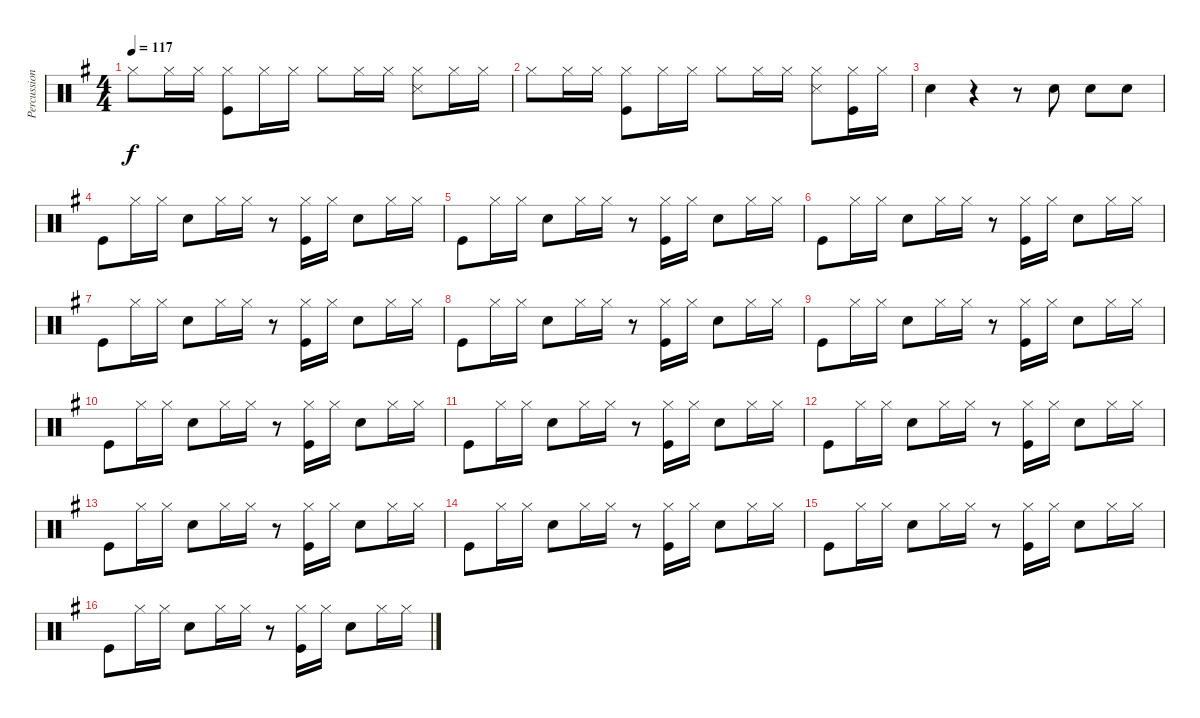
\track ("Percussion" "Percussion") {instrument percussion}
\staff {score}
\articulation defaults
\ts (4 4)
\tempo 117
\clef neutral
\ks g "Hi-Hat (closed)".8{dy f} "Hi-Hat (closed)".16 "Hi-Hat (closed)".16
("Hi-Hat (closed)" "Kick (hit)").8 "Hi-Hat (closed)".16 "Hi-Hat (closed)".16 "Hi-Hat (closed)".8 "Hi-Hat (closed)".16 "Hi-Hat (closed)".16 ("Hi-Hat (closed)" "Snare (side stick) 3").8 "Hi-Hat (closed)".16 "Hi-Hat (closed)".16 |
"Hi-Hat (closed)".8 "Hi-Hat (closed)".16 "Hi-Hat (closed)".16 ("Hi-Hat (closed)" "Kick (hit)").8 "Hi-Hat (closed)".16 "Hi-Hat (closed)".16 "Hi-Hat (closed)".8 "Hi-Hat (closed)".16 "Hi-Hat (closed)".16 ("Hi-Hat (closed)" "Snare (side stick) 3").8 ("Hi-Hat (closed)" "Kick (hit)").16 "Hi-Hat (closed)".16 |
"Snare (hit) 2".4 r.4 r.8 "Snare (hit) 2".8 "Snare (hit) 2".8 "Snare (hit) 2".8 |
"Kick (hit)".8 "Hi-Hat (closed)".16 "Hi-Hat (closed)".16 "Snare (hit) 2".8 "Hi-Hat (closed)".16 "Hi-Hat (closed)".16 r.8 ("Hi-Hat (closed)" "Kick (hit)").16 "Hi-Hat (closed)".16 "Snare (hit) 2".8 "Hi-Hat (closed)".16 "Hi-Hat (closed)".16 |
"Kick (hit)".8 "Hi-Hat (closed)".16 "Hi-Hat (closed)".16 "Snare (hit) 2".8 "Hi-Hat (closed)".16 "Hi-Hat (closed)".16 r.8 ("Hi-Hat (closed)" "Kick (hit)").16 "Hi-Hat (closed)".16 "Snare (hit) 2".8 "Hi-Hat (closed)".16 "Hi-Hat (closed)".16 |
"Kick (hit)".8 "Hi-Hat (closed)".16 "Hi-Hat (closed)".16 "Snare (hit) 2".8 "Hi-Hat (closed)".16 "Hi-Hat (closed)".16 r.8 ("Hi-Hat (closed)" "Kick (hit)").16 "Hi-Hat (closed)".16 "Snare (hit) 2".8 "Hi-Hat (closed)".16 "Hi-Hat (closed)".16 |
"Kick (hit)".8 "Hi-Hat (closed)".16 "Hi-Hat (closed)".16 "Snare (hit) 2".8 "Hi-Hat (closed)".16 "Hi-Hat (closed)".16 r.8 ("Hi-Hat (closed)" "Kick (hit)").16 "Hi-Hat (closed)".16 "Snare (hit) 2".8 "Hi-Hat (closed)".16 "Hi-Hat (closed)".16 |
"Kick (hit)".8 "Hi-Hat (closed)".16 "Hi-Hat (closed)".16 "Snare (hit) 2".8 "Hi-Hat (closed)".16 "Hi-Hat (closed)".16 r.8 ("Hi-Hat (closed)" "Kick (hit)").16 "Hi-Hat (closed)".16 "Snare (hit) 2".8 "Hi-Hat (closed)".16 "Hi-Hat (closed)".16 |
"Kick (hit)".8 "Hi-Hat (closed)".16 "Hi-Hat (closed)".16 "Snare (hit) 2".8 "Hi-Hat (closed)".16 "Hi-Hat (closed)".16 r.8 ("Hi-Hat (closed)" "Kick (hit)").16 "Hi-Hat (closed)".16 "Snare (hit) 2".8 "Hi-Hat (closed)".16 "Hi-Hat (closed)".16 |
"Kick (hit)".8 "Hi-Hat (closed)".16 "Hi-Hat (closed)".16 "Snare (hit) 2".8 "Hi-Hat (closed)".16 "Hi-Hat (closed)".16 r.8 ("Hi-Hat (closed)" "Kick (hit)").16 "Hi-Hat (closed)".16 "Snare (hit) 2".8 "Hi-Hat (closed)".16 "Hi-Hat (closed)".16 |
"Kick (hit)".8 "Hi-Hat (closed)".16 "Hi-Hat (closed)".16 "Snare (hit) 2".8 "Hi-Hat (closed)".16 "Hi-Hat (closed)".16 r.8 ("Hi-Hat (closed)" "Kick (hit)").16 "Hi-Hat (closed)".16 "Snare (hit) 2".8 "Hi-Hat (closed)".16 "Hi-Hat (closed)".16 |
"Kick (hit)".8 "Hi-Hat (closed)".16 "Hi-Hat (closed)".16 "Snare (hit) 2".8 "Hi-Hat (closed)".16 "Hi-Hat (closed)".16 r.8 ("Hi-Hat (closed)" "Kick (hit)").16 "Hi-Hat (closed)".16 "Snare (hit) 2".8 "Hi-Hat (closed)".16 "Hi-Hat (closed)".16 |
"Kick (hit)".8 "Hi-Hat (closed)".16 "Hi-Hat (closed)".16 "Snare (hit) 2".8 "Hi-Hat (closed)".16 "Hi-Hat (closed)".16 r.8 ("Hi-Hat (closed)" "Kick (hit)").16 "Hi-Hat (closed)".16 "Snare (hit) 2".8 "Hi-Hat (closed)".16 "Hi-Hat (closed)".16 |
"Kick (hit)".8 "Hi-Hat (closed)".16 "Hi-Hat (closed)".16 "Snare (hit) 2".8 "Hi-Hat (closed)".16 "Hi-Hat (closed)".16 r.8 ("Hi-Hat (closed)" "Kick (hit)").16 "Hi-Hat (closed)".16 "Snare (hit) 2".8 "Hi-Hat (closed)".16 "Hi-Hat (closed)".16 |
"Kick (hit)".8 "Hi-Hat (closed)".16 "Hi-Hat (closed)".16 "Snare (hit) 2".8 "Hi-Hat (closed)".16 "Hi-Hat (closed)".16 r.8 ("Hi-Hat (closed)" "Kick (hit)").16 "Hi-Hat (closed)".16 "Snare (hit) 2".8 "Hi-Hat (closed)".16 "Hi-Hat (closed)".16 |
"Kick (hit)".8 "Hi-Hat (closed)".16 "Hi-Hat (closed)".16 "Snare (hit) 2".8 "Hi-Hat (closed)".16 "Hi-Hat (closed)".16 r.8 ("Hi-Hat (closed)" "Kick (hit)").16 "Hi-Hat (closed)".16 "Snare (hit) 2".8 "Hi-Hat (closed)".16 "Hi-Hat (closed)".16
